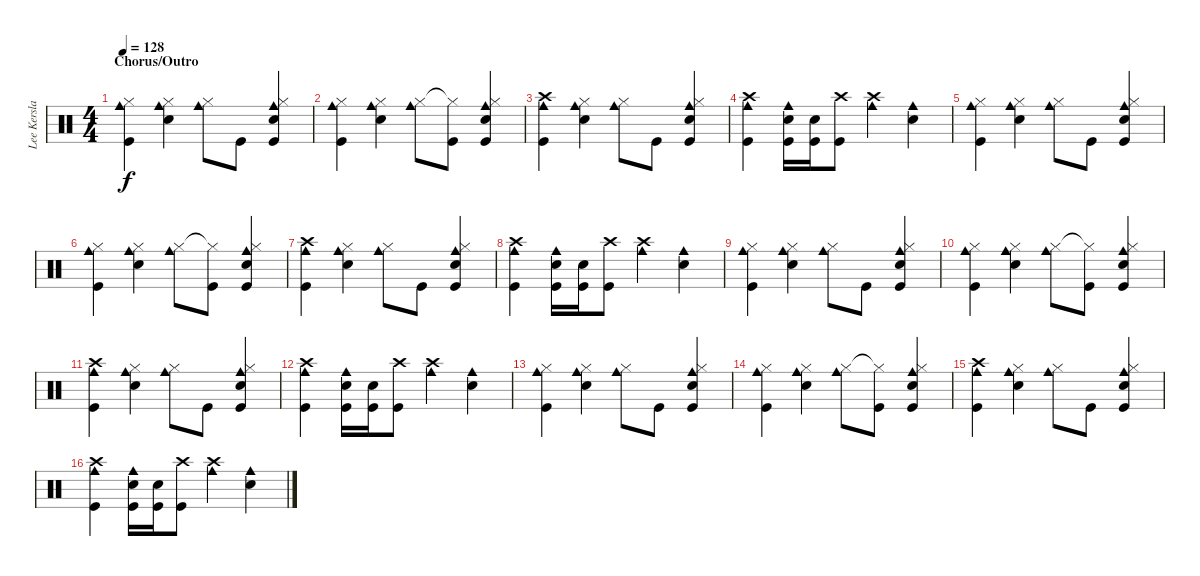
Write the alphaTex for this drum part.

\track ("Lee Kerslake (Drums)" "Lee Kersla") {instrument percussion}
\staff {score}
\articulation defaults
\ts (4 4)
\section ("" "Chorus/Outro")
\tempo 128
\clef neutral
\ks c
("Kick (hit)" "Hi-Hat (closed)" "Cowbell medium (hit)").4{dy f} ("Hi-Hat (closed)" "Electric Snare (hit)" "Cowbell medium (hit)").4 ("Hi-Hat (closed)" "Cowbell medium (hit)").8 "Kick (hit)".8 ("Kick (hit)" "Hi-Hat (closed)" "Electric Snare (hit)" "Cowbell medium (hit)").4 |
("Kick (hit)" "Hi-Hat (closed)" "Cowbell medium (hit)").4 ("Hi-Hat (closed)" "Electric Snare (hit)" "Cowbell medium (hit)").4 ("Hi-Hat (closed)" "Cowbell medium (hit)").8 ("Hi-Hat (closed)"{t} "Kick (hit)").8 ("Kick (hit)" "Hi-Hat (closed)" "Electric Snare (hit)" "Cowbell medium (hit)").4 |
("Kick (hit)" "Crash high (hit)" "Cowbell medium (hit)").4 ("Hi-Hat (closed)" "Electric Snare (hit)" "Cowbell medium (hit)").4 ("Hi-Hat (closed)" "Cowbell medium (hit)").8 "Kick (hit)".8 ("Kick (hit)" "Electric Snare (hit)" "Hi-Hat (closed)" "Cowbell medium (hit)").4 |
("Crash high (hit)" "Kick (hit)" "Cowbell medium (hit)").4 ("Electric Snare (hit)" "Kick (hit)" "Cowbell medium (hit)").16 ("Electric Snare (hit)" "Kick (hit)").16 ("Kick (hit)" "Crash high (hit)").8 ("Crash high (hit)" "Cowbell medium (hit)").4 ("Electric Snare (hit)" "Cowbell medium (hit)").4 |
("Kick (hit)" "Hi-Hat (closed)" "Cowbell medium (hit)").4 ("Hi-Hat (closed)" "Electric Snare (hit)" "Cowbell medium (hit)").4 ("Hi-Hat (closed)" "Cowbell medium (hit)").8 "Kick (hit)".8 ("Kick (hit)" "Hi-Hat (closed)" "Electric Snare (hit)" "Cowbell medium (hit)").4 |
("Kick (hit)" "Hi-Hat (closed)" "Cowbell medium (hit)").4 ("Hi-Hat (closed)" "Electric Snare (hit)" "Cowbell medium (hit)").4 ("Hi-Hat (closed)" "Cowbell medium (hit)").8 ("Hi-Hat (closed)"{t} "Kick (hit)").8 ("Kick (hit)" "Hi-Hat (closed)" "Electric Snare (hit)" "Cowbell medium (hit)").4 |
("Kick (hit)" "Crash high (hit)" "Cowbell medium (hit)").4 ("Hi-Hat (closed)" "Electric Snare (hit)" "Cowbell medium (hit)").4 ("Hi-Hat (closed)" "Cowbell medium (hit)").8 "Kick (hit)".8 ("Kick (hit)" "Electric Snare (hit)" "Hi-Hat (closed)" "Cowbell medium (hit)").4 |
("Crash high (hit)" "Kick (hit)" "Cowbell medium (hit)").4 ("Electric Snare (hit)" "Kick (hit)" "Cowbell medium (hit)").16 ("Electric Snare (hit)" "Kick (hit)").16 ("Kick (hit)" "Crash high (hit)").8 ("Crash high (hit)" "Cowbell medium (hit)").4 ("Electric Snare (hit)" "Cowbell medium (hit)").4 |
("Kick (hit)" "Hi-Hat (closed)" "Cowbell medium (hit)").4 ("Hi-Hat (closed)" "Electric Snare (hit)" "Cowbell medium (hit)").4 ("Hi-Hat (closed)" "Cowbell medium (hit)").8 "Kick (hit)".8 ("Kick (hit)" "Hi-Hat (closed)" "Electric Snare (hit)" "Cowbell medium (hit)").4 |
("Kick (hit)" "Hi-Hat (closed)" "Cowbell medium (hit)").4 ("Hi-Hat (closed)" "Electric Snare (hit)" "Cowbell medium (hit)").4 ("Hi-Hat (closed)" "Cowbell medium (hit)").8 ("Hi-Hat (closed)"{t} "Kick (hit)").8 ("Kick (hit)" "Hi-Hat (closed)" "Electric Snare (hit)" "Cowbell medium (hit)").4 |
("Kick (hit)" "Crash high (hit)" "Cowbell medium (hit)").4 ("Hi-Hat (closed)" "Electric Snare (hit)" "Cowbell medium (hit)").4 ("Hi-Hat (closed)" "Cowbell medium (hit)").8 "Kick (hit)".8 ("Kick (hit)" "Electric Snare (hit)" "Hi-Hat (closed)" "Cowbell medium (hit)").4 |
("Crash high (hit)" "Kick (hit)" "Cowbell medium (hit)").4 ("Electric Snare (hit)" "Kick (hit)" "Cowbell medium (hit)").16 ("Electric Snare (hit)" "Kick (hit)").16 ("Kick (hit)" "Crash high (hit)").8 ("Crash high (hit)" "Cowbell medium (hit)").4 ("Electric Snare (hit)" "Cowbell medium (hit)").4 |
("Kick (hit)" "Hi-Hat (closed)" "Cowbell medium (hit)").4 ("Hi-Hat (closed)" "Electric Snare (hit)" "Cowbell medium (hit)").4 ("Hi-Hat (closed)" "Cowbell medium (hit)").8 "Kick (hit)".8 ("Kick (hit)" "Hi-Hat (closed)" "Electric Snare (hit)" "Cowbell medium (hit)").4 |
("Kick (hit)" "Hi-Hat (closed)" "Cowbell medium (hit)").4 ("Hi-Hat (closed)" "Electric Snare (hit)" "Cowbell medium (hit)").4 ("Hi-Hat (closed)" "Cowbell medium (hit)").8 ("Hi-Hat (closed)"{t} "Kick (hit)").8 ("Kick (hit)" "Hi-Hat (closed)" "Electric Snare (hit)" "Cowbell medium (hit)").4 |
("Kick (hit)" "Crash high (hit)" "Cowbell medium (hit)").4 ("Hi-Hat (closed)" "Electric Snare (hit)" "Cowbell medium (hit)").4 ("Hi-Hat (closed)" "Cowbell medium (hit)").8 "Kick (hit)".8 ("Kick (hit)" "Electric Snare (hit)" "Hi-Hat (closed)" "Cowbell medium (hit)").4 |
("Crash high (hit)" "Kick (hit)" "Cowbell medium (hit)").4 ("Electric Snare (hit)" "Kick (hit)" "Cowbell medium (hit)").16 ("Electric Snare (hit)" "Kick (hit)").16 ("Kick (hit)" "Crash high (hit)").8 ("Crash high (hit)" "Cowbell medium (hit)").4 ("Electric Snare (hit)" "Cowbell medium (hit)").4
